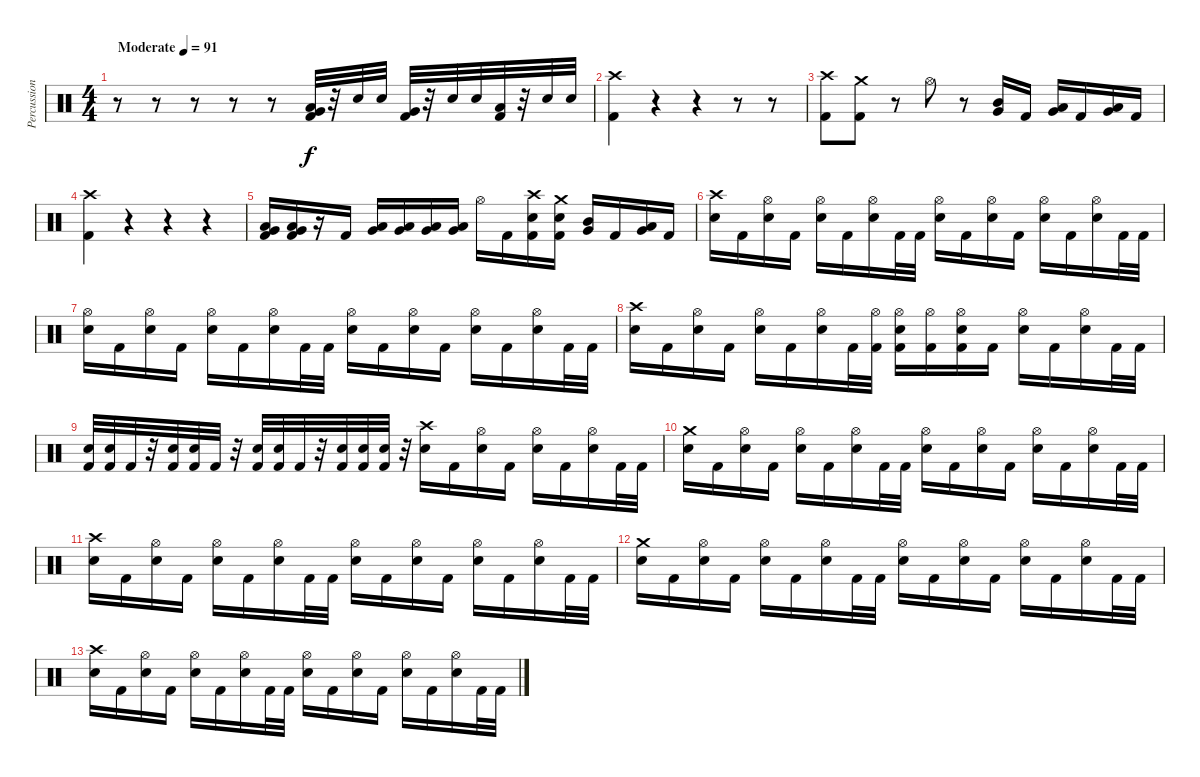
\track ("Percussion" "Percussion") {instrument percussion}
\staff {score}
\articulation defaults
\ts (4 4)
\tempo (91 "Moderate")
\clef neutral
\ks c
r.8{dy f} r.8 r.8 r.8 r.8 ("Very Low Tom (hit)" "Low Floor Tom (hit)" "Kick (hit) 2").32 r.32 "Snare (hit) 2".32 "Snare (hit) 2".32 ("Very Low Tom (hit)" "Kick (hit) 2").32 r.32 "Snare (hit) 2".32 "Snare (hit) 2".32 ("Low Floor Tom (hit)" "Kick (hit) 2").32 r.32 "Snare (hit) 2".32 "Snare (hit) 2".32 |
("Crash high (hit)" "Kick (hit) 2").4 r.4 r.4 r.8 r.8 |
("Crash high (hit)" "Kick (hit) 2").8 ("Crash medium (hit)" "Kick (hit) 2").8 r.8 "Hi-Hat (open)".8 r.8 ("Mid Tom (hit)" "Very Low Tom (hit)").16 "Kick (hit) 2".16 ("Low Tom (hit)" "Very Low Tom (hit)").16 "Kick (hit) 2".16 ("Very Low Tom (hit)" "Low Floor Tom (hit)").16 "Kick (hit) 2".16 |
("Crash high (hit)" "Kick (hit) 2").4 r.4 r.4 r.4 |
("Low Floor Tom (hit)" "Very Low Tom (hit)" "Kick (hit) 2").16 ("Low Floor Tom (hit)" "Very Low Tom (hit)" "Kick (hit) 2").16 r.16 "Kick (hit) 2".16 ("Low Floor Tom (hit)" "Very Low Tom (hit)").16 ("Low Floor Tom (hit)" "Very Low Tom (hit)").16 ("Low Floor Tom (hit)" "Very Low Tom (hit)").16 ("Low Floor Tom (hit)" "Very Low Tom (hit)").16 "Hi-Hat (open)".16 "Kick (hit) 2".16 ("Crash high (hit)" "Snare (hit) 2" "Kick (hit) 2").16 ("Crash medium (hit)" "Snare (hit) 2" "Kick (hit) 2").16 ("Mid Tom (hit)" "Very Low Tom (hit)").16 "Kick (hit) 2".16 ("Low Tom (hit)" "Very Low Tom (hit)").16 "Kick (hit) 2".16 |
("Crash high (hit)" "Electric Snare (hit)").16 "Kick (hit) 2".16 ("Hi-Hat (open)" "Electric Snare (hit)").16 "Kick (hit) 2".16 ("Hi-Hat (open)" "Electric Snare (hit)").16 "Kick (hit) 2".16 ("Hi-Hat (open)" "Electric Snare (hit)").16 "Kick (hit) 2".32 "Kick (hit) 2".32 ("Hi-Hat (open)" "Electric Snare (hit)").16 "Kick (hit) 2".16 ("Hi-Hat (open)" "Electric Snare (hit)").16 "Kick (hit) 2".16 ("Hi-Hat (open)" "Electric Snare (hit)").16 "Kick (hit) 2".16 ("Hi-Hat (open)" "Electric Snare (hit)").16 "Kick (hit) 2".32 "Kick (hit) 2".32 |
("Hi-Hat (open)" "Electric Snare (hit)").16 "Kick (hit) 2".16 ("Hi-Hat (open)" "Electric Snare (hit)").16 "Kick (hit) 2".16 ("Hi-Hat (open)" "Electric Snare (hit)").16 "Kick (hit) 2".16 ("Hi-Hat (open)" "Electric Snare (hit)").16 "Kick (hit) 2".32 "Kick (hit) 2".32 ("Hi-Hat (open)" "Electric Snare (hit)").16 "Kick (hit) 2".16 ("Hi-Hat (open)" "Electric Snare (hit)").16 "Kick (hit) 2".16 ("Hi-Hat (open)" "Electric Snare (hit)").16 "Kick (hit) 2".16 ("Hi-Hat (open)" "Electric Snare (hit)").16 "Kick (hit) 2".32 "Kick (hit) 2".32 |
("Crash high (hit)" "Electric Snare (hit)").16 "Kick (hit) 2".16 ("Hi-Hat (open)" "Electric Snare (hit)").16 "Kick (hit) 2".16 ("Hi-Hat (open)" "Electric Snare (hit)").16 "Kick (hit) 2".16 ("Hi-Hat (open)" "Electric Snare (hit)").16 "Kick (hit) 2".32 ("Hi-Hat (open)" "Kick (hit) 2").32 ("Hi-Hat (open)" "Electric Snare (hit)" "Kick (hit) 2").16 ("Hi-Hat (open)" "Kick (hit) 2").16 ("Hi-Hat (open)" "Electric Snare (hit)" "Kick (hit) 2").16 "Kick (hit) 2".16 ("Hi-Hat (open)" "Electric Snare (hit)").16 "Kick (hit) 2".16 ("Hi-Hat (open)" "Electric Snare (hit)").16 "Kick (hit) 2".32 "Kick (hit) 2".32 |
("Snare (hit) 2" "Kick (hit) 2").32 ("Snare (hit) 2" "Kick (hit) 2").32 "Kick (hit) 2".32 r.32 ("Snare (hit) 2" "Kick (hit) 2").32 ("Snare (hit) 2" "Kick (hit) 2").32 "Kick (hit) 2".32 r.32 ("Snare (hit) 2" "Kick (hit) 2").32 ("Snare (hit) 2" "Kick (hit) 2").32 "Kick (hit) 2".32 r.32 ("Snare (hit) 2" "Kick (hit) 2").32 ("Snare (hit) 2" "Kick (hit) 2").32 ("Snare (hit) 2" "Kick (hit) 2").32 r.32 ("Crash high (hit)" "Electric Snare (hit)").16 "Kick (hit) 2".16 ("Hi-Hat (open)" "Electric Snare (hit)").16 "Kick (hit) 2".16 ("Hi-Hat (open)" "Electric Snare (hit)").16 "Kick (hit) 2".16 ("Hi-Hat (open)" "Electric Snare (hit)").16 "Kick (hit) 2".32 "Kick (hit) 2".32 |
("Crash medium (hit)" "Electric Snare (hit)").16 "Kick (hit) 2".16 ("Hi-Hat (open)" "Electric Snare (hit)").16 "Kick (hit) 2".16 ("Hi-Hat (open)" "Electric Snare (hit)").16 "Kick (hit) 2".16 ("Hi-Hat (open)" "Electric Snare (hit)").16 "Kick (hit) 2".32 "Kick (hit) 2".32 ("Hi-Hat (open)" "Electric Snare (hit)").16 "Kick (hit) 2".16 ("Hi-Hat (open)" "Electric Snare (hit)").16 "Kick (hit) 2".16 ("Hi-Hat (open)" "Electric Snare (hit)").16 "Kick (hit) 2".16 ("Hi-Hat (open)" "Electric Snare (hit)").16 "Kick (hit) 2".32 "Kick (hit) 2".32 |
("Crash high (hit)" "Electric Snare (hit)").16 "Kick (hit) 2".16 ("Hi-Hat (open)" "Electric Snare (hit)").16 "Kick (hit) 2".16 ("Hi-Hat (open)" "Electric Snare (hit)").16 "Kick (hit) 2".16 ("Hi-Hat (open)" "Electric Snare (hit)").16 "Kick (hit) 2".32 "Kick (hit) 2".32 ("Hi-Hat (open)" "Electric Snare (hit)").16 "Kick (hit) 2".16 ("Hi-Hat (open)" "Electric Snare (hit)").16 "Kick (hit) 2".16 ("Hi-Hat (open)" "Electric Snare (hit)").16 "Kick (hit) 2".16 ("Hi-Hat (open)" "Electric Snare (hit)").16 "Kick (hit) 2".32 "Kick (hit) 2".32 |
("Crash medium (hit)" "Electric Snare (hit)").16 "Kick (hit) 2".16 ("Hi-Hat (open)" "Electric Snare (hit)").16 "Kick (hit) 2".16 ("Hi-Hat (open)" "Electric Snare (hit)").16 "Kick (hit) 2".16 ("Hi-Hat (open)" "Electric Snare (hit)").16 "Kick (hit) 2".32 "Kick (hit) 2".32 ("Hi-Hat (open)" "Electric Snare (hit)").16 "Kick (hit) 2".16 ("Hi-Hat (open)" "Electric Snare (hit)").16 "Kick (hit) 2".16 ("Hi-Hat (open)" "Electric Snare (hit)").16 "Kick (hit) 2".16 ("Hi-Hat (open)" "Electric Snare (hit)").16 "Kick (hit) 2".32 "Kick (hit) 2".32 |
("Crash high (hit)" "Electric Snare (hit)").16 "Kick (hit) 2".16 ("Hi-Hat (open)" "Electric Snare (hit)").16 "Kick (hit) 2".16 ("Hi-Hat (open)" "Electric Snare (hit)").16 "Kick (hit) 2".16 ("Hi-Hat (open)" "Electric Snare (hit)").16 "Kick (hit) 2".32 "Kick (hit) 2".32 ("Hi-Hat (open)" "Electric Snare (hit)").16 "Kick (hit) 2".16 ("Hi-Hat (open)" "Electric Snare (hit)").16 "Kick (hit) 2".16 ("Hi-Hat (open)" "Electric Snare (hit)").16 "Kick (hit) 2".16 ("Hi-Hat (open)" "Electric Snare (hit)").16 "Kick (hit) 2".32 "Kick (hit) 2".32
